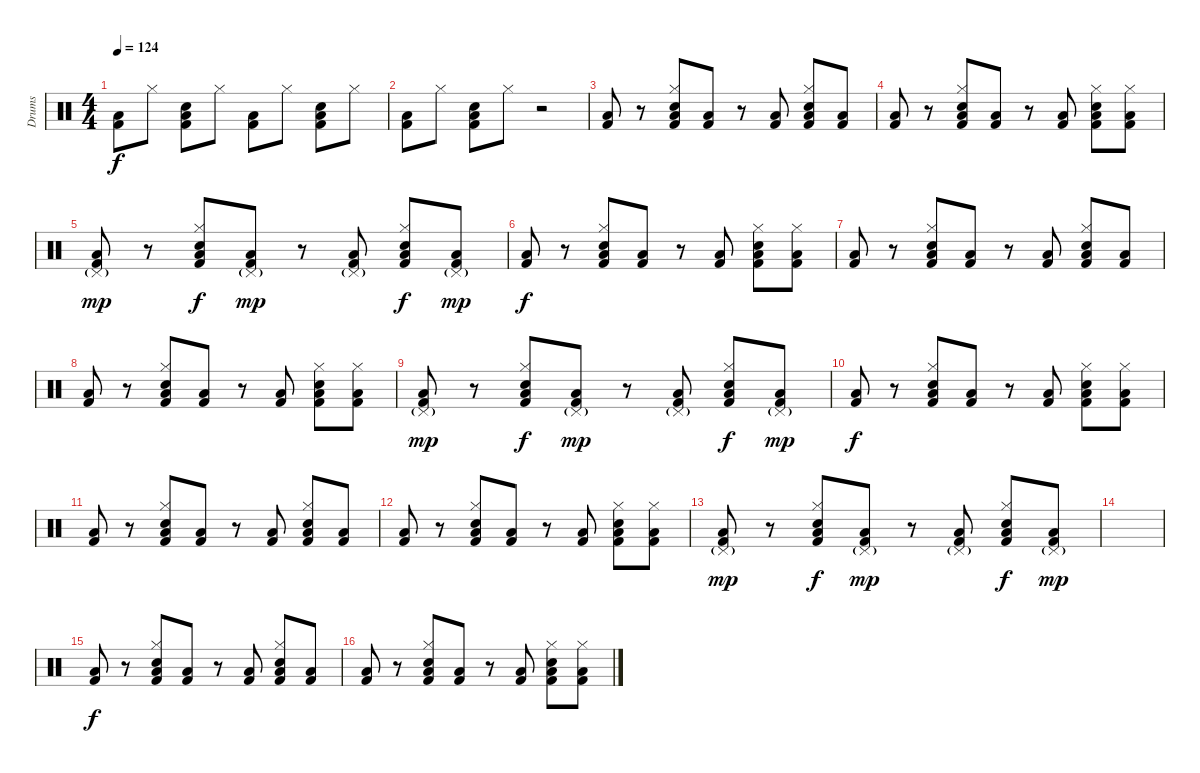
\track ("Drums" "Drums") {instrument percussion}
\staff {score}
\articulation defaults
\ts (4 4)
\tempo 124
\clef neutral
\ks c
("Kick (hit) 2" "Low Floor Tom (hit)").8{dy f} "Hi-Hat (closed)".8 ("Electric Snare (hit)" "Kick (hit) 2" "Low Floor Tom (hit)").8 "Hi-Hat (closed)".8 ("Kick (hit) 2" "Low Floor Tom (hit)").8 "Hi-Hat (closed)".8 ("Electric Snare (hit)" "Kick (hit) 2" "Low Floor Tom (hit)").8 "Hi-Hat (closed)".8 |
("Kick (hit) 2" "Low Floor Tom (hit)").8 "Hi-Hat (closed)".8 ("Electric Snare (hit)" "Kick (hit) 2" "Low Floor Tom (hit)").8 "Hi-Hat (closed)".8 r.2 |
("Kick (hit) 2" "Low Floor Tom (hit)").8 r.8 ("Hi-Hat (closed)" "Electric Snare (hit)" "Kick (hit) 2" "Low Floor Tom (hit)").8 ("Kick (hit) 2" "Low Floor Tom (hit)").8 r.8 ("Kick (hit) 2" "Low Floor Tom (hit)").8 ("Hi-Hat (closed)" "Electric Snare (hit)" "Kick (hit) 2" "Low Floor Tom (hit)").8 ("Kick (hit) 2" "Low Floor Tom (hit)").8 |
("Kick (hit) 2" "Low Floor Tom (hit)").8 r.8 ("Hi-Hat (closed)" "Electric Snare (hit)" "Kick (hit) 2" "Low Floor Tom (hit)").8 ("Kick (hit) 2" "Low Floor Tom (hit)").8 r.8 ("Kick (hit) 2" "Low Floor Tom (hit)").8 ("Hi-Hat (closed)" "Electric Snare (hit)" "Kick (hit) 2" "Low Floor Tom (hit)").8 ("Hi-Hat (closed)" "Kick (hit) 2" "Low Floor Tom (hit)").8 |
("Pedal Hi-Hat (hit)"{g} "Kick (hit) 2" "Low Floor Tom (hit)").8{dy mp} r.8 ("Hi-Hat (closed)" "Electric Snare (hit)" "Kick (hit) 2" "Low Floor Tom (hit)").8{dy f} ("Pedal Hi-Hat (hit)"{g} "Kick (hit) 2" "Low Floor Tom (hit)").8{dy mp} r.8 ("Pedal Hi-Hat (hit)"{g} "Kick (hit) 2" "Low Floor Tom (hit)").8 ("Hi-Hat (closed)" "Electric Snare (hit)" "Kick (hit) 2" "Low Floor Tom (hit)").8{dy f} ("Pedal Hi-Hat (hit)"{g} "Kick (hit) 2" "Low Floor Tom (hit)").8{dy mp} |
("Kick (hit) 2" "Low Floor Tom (hit)").8{dy f} r.8 ("Hi-Hat (closed)" "Electric Snare (hit)" "Kick (hit) 2" "Low Floor Tom (hit)").8 ("Kick (hit) 2" "Low Floor Tom (hit)").8 r.8 ("Kick (hit) 2" "Low Floor Tom (hit)").8 ("Hi-Hat (closed)" "Electric Snare (hit)" "Kick (hit) 2" "Low Floor Tom (hit)").8 ("Hi-Hat (closed)" "Kick (hit) 2" "Low Floor Tom (hit)").8 |
("Kick (hit) 2" "Low Floor Tom (hit)").8 r.8 ("Hi-Hat (closed)" "Electric Snare (hit)" "Kick (hit) 2" "Low Floor Tom (hit)").8 ("Kick (hit) 2" "Low Floor Tom (hit)").8 r.8 ("Kick (hit) 2" "Low Floor Tom (hit)").8 ("Hi-Hat (closed)" "Electric Snare (hit)" "Kick (hit) 2" "Low Floor Tom (hit)").8 ("Kick (hit) 2" "Low Floor Tom (hit)").8 |
("Kick (hit) 2" "Low Floor Tom (hit)").8 r.8 ("Hi-Hat (closed)" "Electric Snare (hit)" "Kick (hit) 2" "Low Floor Tom (hit)").8 ("Kick (hit) 2" "Low Floor Tom (hit)").8 r.8 ("Kick (hit) 2" "Low Floor Tom (hit)").8 ("Hi-Hat (closed)" "Electric Snare (hit)" "Kick (hit) 2" "Low Floor Tom (hit)").8 ("Hi-Hat (closed)" "Kick (hit) 2" "Low Floor Tom (hit)").8 |
("Pedal Hi-Hat (hit)"{g} "Kick (hit) 2" "Low Floor Tom (hit)").8{dy mp} r.8 ("Hi-Hat (closed)" "Electric Snare (hit)" "Kick (hit) 2" "Low Floor Tom (hit)").8{dy f} ("Pedal Hi-Hat (hit)"{g} "Kick (hit) 2" "Low Floor Tom (hit)").8{dy mp} r.8 ("Pedal Hi-Hat (hit)"{g} "Kick (hit) 2" "Low Floor Tom (hit)").8 ("Hi-Hat (closed)" "Electric Snare (hit)" "Kick (hit) 2" "Low Floor Tom (hit)").8{dy f} ("Pedal Hi-Hat (hit)"{g} "Kick (hit) 2" "Low Floor Tom (hit)").8{dy mp} |
("Kick (hit) 2" "Low Floor Tom (hit)").8{dy f} r.8 ("Hi-Hat (closed)" "Electric Snare (hit)" "Kick (hit) 2" "Low Floor Tom (hit)").8 ("Kick (hit) 2" "Low Floor Tom (hit)").8 r.8 ("Kick (hit) 2" "Low Floor Tom (hit)").8 ("Hi-Hat (closed)" "Electric Snare (hit)" "Kick (hit) 2" "Low Floor Tom (hit)").8 ("Hi-Hat (closed)" "Kick (hit) 2" "Low Floor Tom (hit)").8 |
("Kick (hit) 2" "Low Floor Tom (hit)").8 r.8 ("Hi-Hat (closed)" "Electric Snare (hit)" "Kick (hit) 2" "Low Floor Tom (hit)").8 ("Kick (hit) 2" "Low Floor Tom (hit)").8 r.8 ("Kick (hit) 2" "Low Floor Tom (hit)").8 ("Hi-Hat (closed)" "Electric Snare (hit)" "Kick (hit) 2" "Low Floor Tom (hit)").8 ("Kick (hit) 2" "Low Floor Tom (hit)").8 |
("Kick (hit) 2" "Low Floor Tom (hit)").8 r.8 ("Hi-Hat (closed)" "Electric Snare (hit)" "Kick (hit) 2" "Low Floor Tom (hit)").8 ("Kick (hit) 2" "Low Floor Tom (hit)").8 r.8 ("Kick (hit) 2" "Low Floor Tom (hit)").8 ("Hi-Hat (closed)" "Electric Snare (hit)" "Kick (hit) 2" "Low Floor Tom (hit)").8 ("Hi-Hat (closed)" "Kick (hit) 2" "Low Floor Tom (hit)").8 |
("Pedal Hi-Hat (hit)"{g} "Kick (hit) 2" "Low Floor Tom (hit)").8{dy mp} r.8 ("Hi-Hat (closed)" "Electric Snare (hit)" "Kick (hit) 2" "Low Floor Tom (hit)").8{dy f} ("Pedal Hi-Hat (hit)"{g} "Kick (hit) 2" "Low Floor Tom (hit)").8{dy mp} r.8 ("Pedal Hi-Hat (hit)"{g} "Kick (hit) 2" "Low Floor Tom (hit)").8 ("Hi-Hat (closed)" "Electric Snare (hit)" "Kick (hit) 2" "Low Floor Tom (hit)").8{dy f} ("Pedal Hi-Hat (hit)"{g} "Kick (hit) 2" "Low Floor Tom (hit)").8{dy mp} |
|
("Kick (hit) 2" "Low Floor Tom (hit)").8{dy f} r.8 ("Hi-Hat (closed)" "Electric Snare (hit)" "Kick (hit) 2" "Low Floor Tom (hit)").8 ("Kick (hit) 2" "Low Floor Tom (hit)").8 r.8 ("Kick (hit) 2" "Low Floor Tom (hit)").8 ("Hi-Hat (closed)" "Electric Snare (hit)" "Kick (hit) 2" "Low Floor Tom (hit)").8 ("Kick (hit) 2" "Low Floor Tom (hit)").8 |
("Kick (hit) 2" "Low Floor Tom (hit)").8 r.8 ("Hi-Hat (closed)" "Electric Snare (hit)" "Kick (hit) 2" "Low Floor Tom (hit)").8 ("Kick (hit) 2" "Low Floor Tom (hit)").8 r.8 ("Kick (hit) 2" "Low Floor Tom (hit)").8 ("Hi-Hat (closed)" "Electric Snare (hit)" "Kick (hit) 2" "Low Floor Tom (hit)").8 ("Hi-Hat (closed)" "Kick (hit) 2" "Low Floor Tom (hit)").8
